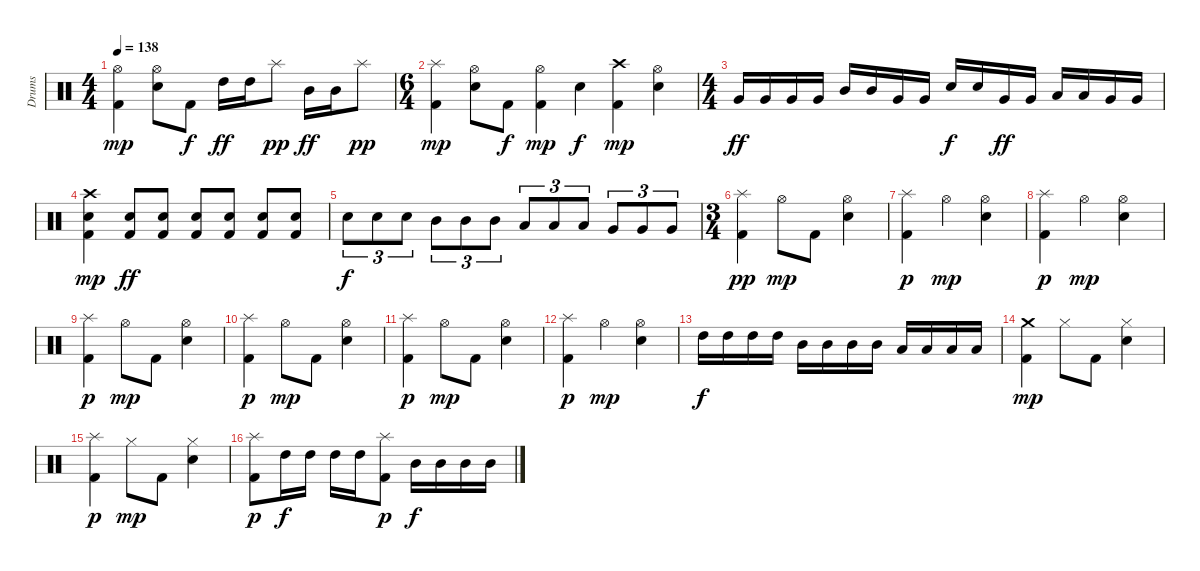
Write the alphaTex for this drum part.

\track ("Drums" "Drums") {instrument percussion}
\staff {score}
\articulation defaults
\ts (4 4)
\tempo 138
\clef neutral
\ks c
("Kick (hit) 2" "Hi-Hat (open)").4{dy mp} ("Electric Snare (hit)" "Hi-Hat (open)").8 "Kick (hit) 2".8{dy f} "High Tom (hit)".16{dy ff} "High Tom (hit)".16 "Splash (hit)".8{dy pp} "Mid Tom (hit)".16{dy ff} "Mid Tom (hit)".16 "Splash (hit)".8{dy pp} |
\ts (6 4)
("Kick (hit) 2" "Splash (hit)").4{dy mp} ("Electric Snare (hit)" "Hi-Hat (open)").8 "Kick (hit) 2".8{dy f} ("Kick (hit) 2" "Hi-Hat (open)").4{dy mp} "Electric Snare (hit)".4{dy f} ("Kick (hit) 2" "Crash high (hit)").4{dy mp} ("Electric Snare (hit)" "Hi-Hat (open)").4 |
\ts (4 4)
"Very Low Tom (hit)".16{dy ff} "Very Low Tom (hit)".16 "Very Low Tom (hit)".16 "Very Low Tom (hit)".16 "Mid Tom (hit)".16 "Mid Tom (hit)".16 "Very Low Tom (hit)".16 "Very Low Tom (hit)".16 "Electric Snare (hit)".16{dy f} "Electric Snare (hit)".16 "Very Low Tom (hit)".16{dy ff} "Very Low Tom (hit)".16 "Low Floor Tom (hit)".16 "Low Floor Tom (hit)".16 "Very Low Tom (hit)".16 "Very Low Tom (hit)".16 |
("Kick (hit) 2" "Electric Snare (hit)" "Crash high (hit)").4{dy mp} ("Kick (hit) 2" "Electric Snare (hit)").8{dy ff} ("Kick (hit) 2" "Electric Snare (hit)").8 ("Kick (hit) 2" "Electric Snare (hit)").8 ("Kick (hit) 2" "Electric Snare (hit)").8 ("Kick (hit) 2" "Electric Snare (hit)").8 ("Kick (hit) 2" "Electric Snare (hit)").8 |
"Electric Snare (hit)".8{tu (3 2) dy f} "Electric Snare (hit)".8{tu (3 2)} "Electric Snare (hit)".8{tu (3 2)} "Mid Tom (hit)".8{tu (3 2)} "Mid Tom (hit)".8{tu (3 2)} "Mid Tom (hit)".8{tu (3 2)} "Low Tom (hit)".8{tu (3 2)} "Low Tom (hit)".8{tu (3 2)} "Low Tom (hit)".8{tu (3 2)} "Very Low Tom (hit)".8{tu (3 2)} "Very Low Tom (hit)".8{tu (3 2)} "Very Low Tom (hit)".8{tu (3 2)} |
\ts (3 4)
("Kick (hit) 2" "Splash (hit)").4{dy pp} "Hi-Hat (open)".8{dy mp} "Kick (hit) 2".8 ("Electric Snare (hit)" "Hi-Hat (open)").4 |
("Kick (hit) 2" "Splash (hit)").4{dy p} "Hi-Hat (open)".4{dy mp} ("Electric Snare (hit)" "Hi-Hat (open)").4 |
("Kick (hit) 2" "Splash (hit)").4{dy p} "Hi-Hat (open)".4{dy mp} ("Electric Snare (hit)" "Hi-Hat (open)").4 |
("Kick (hit) 2" "Splash (hit)").4{dy p} "Hi-Hat (open)".8{dy mp} "Kick (hit) 2".8 ("Electric Snare (hit)" "Hi-Hat (open)").4 |
("Kick (hit) 2" "Splash (hit)").4{dy p} "Hi-Hat (open)".8{dy mp} "Kick (hit) 2".8 ("Electric Snare (hit)" "Hi-Hat (open)").4 |
("Kick (hit) 2" "Splash (hit)").4{dy p} "Hi-Hat (open)".8{dy mp} "Kick (hit) 2".8 ("Electric Snare (hit)" "Hi-Hat (open)").4 |
("Kick (hit) 2" "Splash (hit)").4{dy p} "Hi-Hat (open)".4{dy mp} ("Electric Snare (hit)" "Hi-Hat (open)").4 |
"High Tom (hit)".16{dy f} "High Tom (hit)".16 "High Tom (hit)".16 "High Tom (hit)".16 "Mid Tom (hit)".16 "Mid Tom (hit)".16 "Mid Tom (hit)".16 "Mid Tom (hit)".16 "Low Tom (hit)".16 "Low Tom (hit)".16 "Low Tom (hit)".16 "Low Tom (hit)".16 |
("Kick (hit) 2" "Crash medium (hit)").4{dy mp} "Hi-Hat (closed)".8 "Kick (hit) 2".8 ("Electric Snare (hit)" "Hi-Hat (closed)").4 |
("Kick (hit) 2" "Splash (hit)").4{dy p} "Hi-Hat (closed)".8{dy mp} "Kick (hit) 2".8 ("Electric Snare (hit)" "Hi-Hat (closed)").4 |
("Kick (hit) 2" "Splash (hit)").8{dy p} "High Tom (hit)".16{dy f} "High Tom (hit)".16 "High Tom (hit)".16 "High Tom (hit)".16 ("Kick (hit) 2" "Splash (hit)").8{dy p} "Mid Tom (hit)".16{dy f} "Mid Tom (hit)".16 "Mid Tom (hit)".16 "Mid Tom (hit)".16
